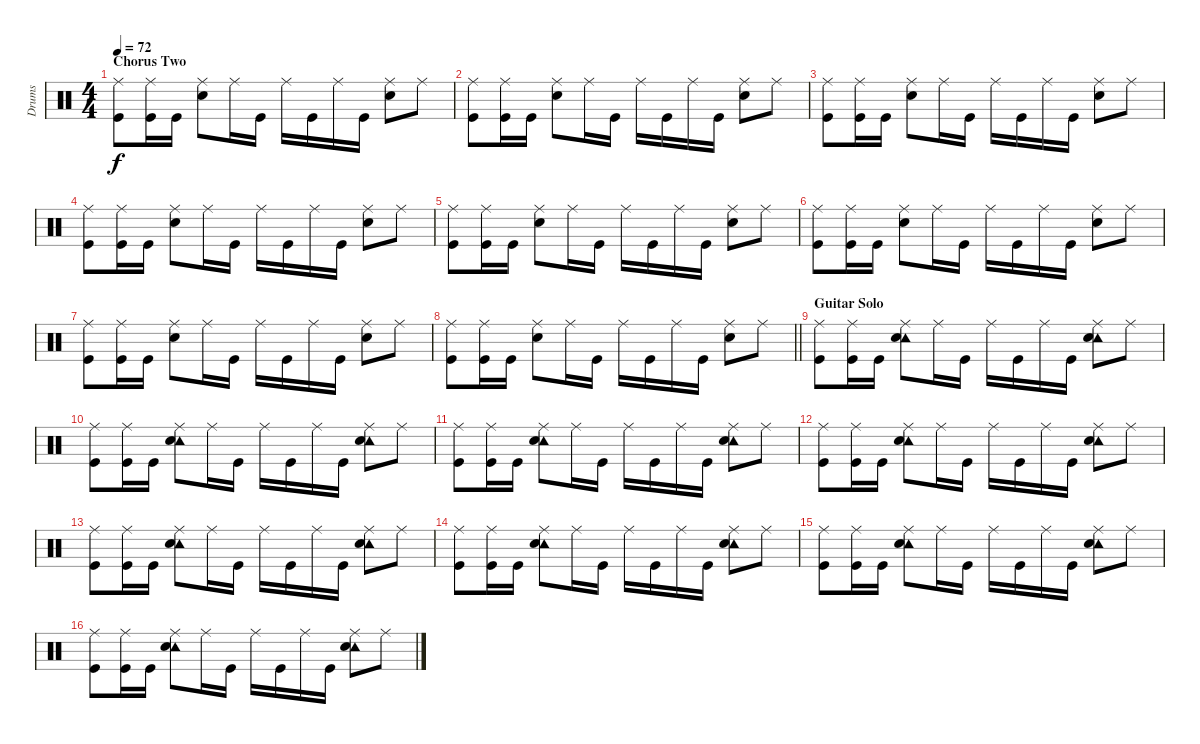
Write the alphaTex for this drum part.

\track ("Drums" "Drums") {instrument percussion}
\staff {score}
\articulation defaults
\ts (4 4)
\section ("" "Chorus Two")
\tempo 72
\clef neutral
\ks c
("Ride (middle)" "Kick (hit)").8{dy f} ("Ride (middle)" "Kick (hit)").16 "Kick (hit)".16 ("Ride (middle)" "Snare (hit) 2").8 "Ride (middle)".16 "Kick (hit)".16 "Ride (middle)".16 "Kick (hit)".16 "Ride (middle)".16 "Kick (hit)".16 ("Ride (middle)" "Snare (hit) 2").8 "Ride (middle)".8 |
("Ride (middle)" "Kick (hit)").8 ("Ride (middle)" "Kick (hit)").16 "Kick (hit)".16 ("Ride (middle)" "Snare (hit) 2").8 "Ride (middle)".16 "Kick (hit)".16 "Ride (middle)".16 "Kick (hit)".16 "Ride (middle)".16 "Kick (hit)".16 ("Ride (middle)" "Snare (hit) 2").8 "Ride (middle)".8 |
("Ride (middle)" "Kick (hit)").8 ("Ride (middle)" "Kick (hit)").16 "Kick (hit)".16 ("Ride (middle)" "Snare (hit) 2").8 "Ride (middle)".16 "Kick (hit)".16 "Ride (middle)".16 "Kick (hit)".16 "Ride (middle)".16 "Kick (hit)".16 ("Ride (middle)" "Snare (hit) 2").8 "Ride (middle)".8 |
("Ride (middle)" "Kick (hit)").8 ("Ride (middle)" "Kick (hit)").16 "Kick (hit)".16 ("Ride (middle)" "Snare (hit) 2").8 "Ride (middle)".16 "Kick (hit)".16 "Ride (middle)".16 "Kick (hit)".16 "Ride (middle)".16 "Kick (hit)".16 ("Ride (middle)" "Snare (hit) 2").8 "Ride (middle)".8 |
("Ride (middle)" "Kick (hit)").8 ("Ride (middle)" "Kick (hit)").16 "Kick (hit)".16 ("Ride (middle)" "Snare (hit) 2").8 "Ride (middle)".16 "Kick (hit)".16 "Ride (middle)".16 "Kick (hit)".16 "Ride (middle)".16 "Kick (hit)".16 ("Ride (middle)" "Snare (hit) 2").8 "Ride (middle)".8 |
("Ride (middle)" "Kick (hit)").8 ("Ride (middle)" "Kick (hit)").16 "Kick (hit)".16 ("Ride (middle)" "Snare (hit) 2").8 "Ride (middle)".16 "Kick (hit)".16 "Ride (middle)".16 "Kick (hit)".16 "Ride (middle)".16 "Kick (hit)".16 ("Ride (middle)" "Snare (hit) 2").8 "Ride (middle)".8 |
("Ride (middle)" "Kick (hit)").8 ("Ride (middle)" "Kick (hit)").16 "Kick (hit)".16 ("Ride (middle)" "Snare (hit) 2").8 "Ride (middle)".16 "Kick (hit)".16 "Ride (middle)".16 "Kick (hit)".16 "Ride (middle)".16 "Kick (hit)".16 ("Ride (middle)" "Snare (hit) 2").8 "Ride (middle)".8 |
\barLineRight lightlight
("Ride (middle)" "Kick (hit)").8 ("Ride (middle)" "Kick (hit)").16 "Kick (hit)".16 ("Ride (middle)" "Snare (hit) 2").8 "Ride (middle)".16 "Kick (hit)".16 "Ride (middle)".16 "Kick (hit)".16 "Ride (middle)".16 "Kick (hit)".16 ("Ride (middle)" "Snare (hit) 2").8 "Ride (middle)".8 |
\section ("" "Guitar Solo")
("Ride (middle)" "Kick (hit)").8 ("Ride (middle)" "Kick (hit)").16 "Kick (hit)".16 ("Tambourine (hit)" "Ride (middle)" "Snare (hit) 2").8 "Ride (middle)".16 "Kick (hit)".16 "Ride (middle)".16 "Kick (hit)".16 "Ride (middle)".16 "Kick (hit)".16 ("Tambourine (hit)" "Ride (middle)" "Snare (hit) 2").8 "Ride (middle)".8 |
("Ride (middle)" "Kick (hit)").8 ("Ride (middle)" "Kick (hit)").16 "Kick (hit)".16 ("Tambourine (hit)" "Ride (middle)" "Snare (hit) 2").8 "Ride (middle)".16 "Kick (hit)".16 "Ride (middle)".16 "Kick (hit)".16 "Ride (middle)".16 "Kick (hit)".16 ("Tambourine (hit)" "Ride (middle)" "Snare (hit) 2").8 "Ride (middle)".8 |
("Ride (middle)" "Kick (hit)").8 ("Ride (middle)" "Kick (hit)").16 "Kick (hit)".16 ("Tambourine (hit)" "Ride (middle)" "Snare (hit) 2").8 "Ride (middle)".16 "Kick (hit)".16 "Ride (middle)".16 "Kick (hit)".16 "Ride (middle)".16 "Kick (hit)".16 ("Tambourine (hit)" "Ride (middle)" "Snare (hit) 2").8 "Ride (middle)".8 |
("Ride (middle)" "Kick (hit)").8 ("Ride (middle)" "Kick (hit)").16 "Kick (hit)".16 ("Tambourine (hit)" "Ride (middle)" "Snare (hit) 2").8 "Ride (middle)".16 "Kick (hit)".16 "Ride (middle)".16 "Kick (hit)".16 "Ride (middle)".16 "Kick (hit)".16 ("Tambourine (hit)" "Ride (middle)" "Snare (hit) 2").8 "Ride (middle)".8 |
("Ride (middle)" "Kick (hit)").8 ("Ride (middle)" "Kick (hit)").16 "Kick (hit)".16 ("Tambourine (hit)" "Ride (middle)" "Snare (hit) 2").8 "Ride (middle)".16 "Kick (hit)".16 "Ride (middle)".16 "Kick (hit)".16 "Ride (middle)".16 "Kick (hit)".16 ("Tambourine (hit)" "Ride (middle)" "Snare (hit) 2").8 "Ride (middle)".8 |
("Ride (middle)" "Kick (hit)").8 ("Ride (middle)" "Kick (hit)").16 "Kick (hit)".16 ("Tambourine (hit)" "Ride (middle)" "Snare (hit) 2").8 "Ride (middle)".16 "Kick (hit)".16 "Ride (middle)".16 "Kick (hit)".16 "Ride (middle)".16 "Kick (hit)".16 ("Tambourine (hit)" "Ride (middle)" "Snare (hit) 2").8 "Ride (middle)".8 |
("Ride (middle)" "Kick (hit)").8 ("Ride (middle)" "Kick (hit)").16 "Kick (hit)".16 ("Tambourine (hit)" "Ride (middle)" "Snare (hit) 2").8 "Ride (middle)".16 "Kick (hit)".16 "Ride (middle)".16 "Kick (hit)".16 "Ride (middle)".16 "Kick (hit)".16 ("Tambourine (hit)" "Ride (middle)" "Snare (hit) 2").8 "Ride (middle)".8 |
("Ride (middle)" "Kick (hit)").8 ("Ride (middle)" "Kick (hit)").16 "Kick (hit)".16 ("Tambourine (hit)" "Ride (middle)" "Snare (hit) 2").8 "Ride (middle)".16 "Kick (hit)".16 "Ride (middle)".16 "Kick (hit)".16 "Ride (middle)".16 "Kick (hit)".16 ("Tambourine (hit)" "Ride (middle)" "Snare (hit) 2").8 "Ride (middle)".8
